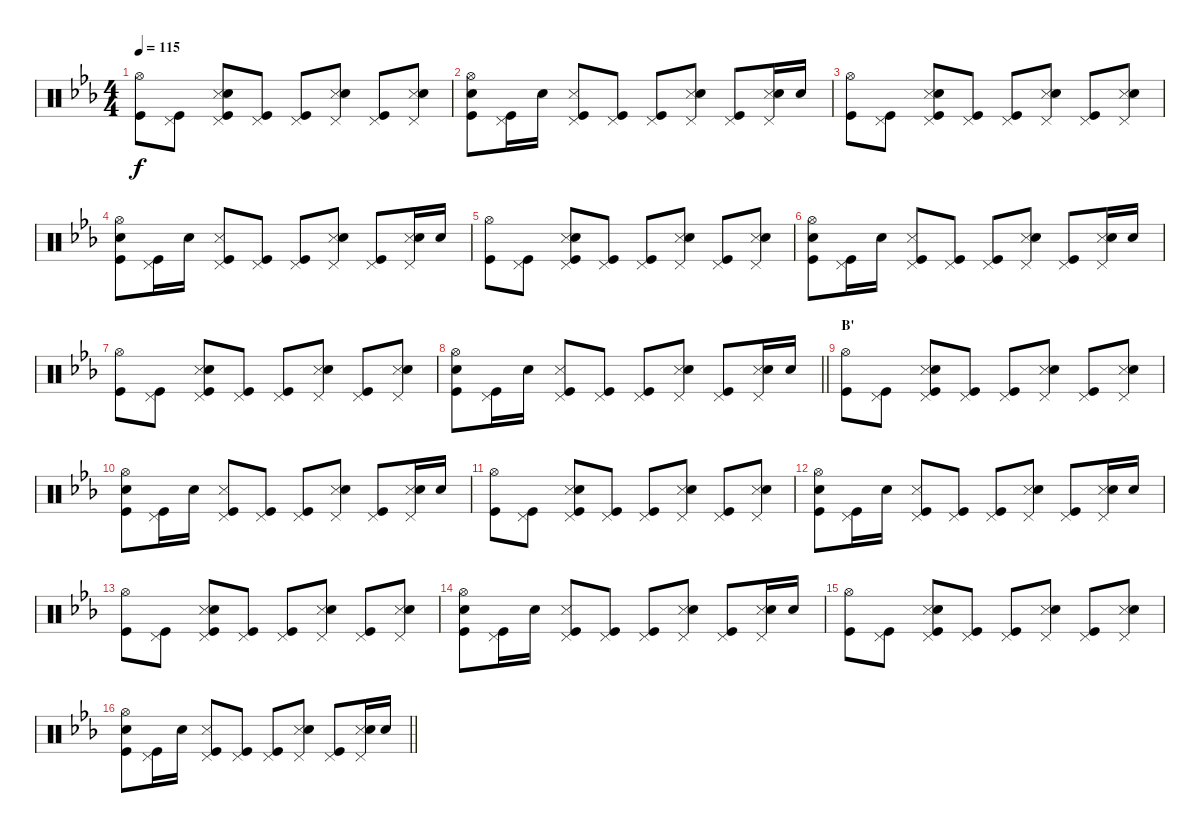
\track "" {instrument percussion}
\staff {score}
\articulation defaults
\ts (4 4)
\tempo 115
\clef neutral
\ks cminor
("Hi-Hat (open)" "Kick (hit)").8{dy f volume 11} ("Pedal Hi-Hat (hit)" "Kick (hit)").8 ("Pedal Hi-Hat (hit)" "Snare (side stick) 3" "Electric Snare (hit)" "Kick (hit)").8 ("Pedal Hi-Hat (hit)" "Kick (hit)").8 ("Pedal Hi-Hat (hit)" "Kick (hit)").8 ("Pedal Hi-Hat (hit)" "Snare (side stick) 3" "Electric Snare (hit)").8 ("Pedal Hi-Hat (hit)" "Kick (hit)").8 ("Pedal Hi-Hat (hit)" "Snare (side stick) 3" "Electric Snare (hit)").8 |
("Hi-Hat (open)" "Electric Snare (hit)" "Kick (hit)").8 ("Pedal Hi-Hat (hit)" "Kick (hit)").16 "Electric Snare (hit)".16 ("Pedal Hi-Hat (hit)" "Snare (side stick) 3" "Kick (hit)").8 ("Pedal Hi-Hat (hit)" "Kick (hit)").8 ("Pedal Hi-Hat (hit)" "Kick (hit)").8 ("Pedal Hi-Hat (hit)" "Snare (side stick) 3" "Electric Snare (hit)").8 ("Pedal Hi-Hat (hit)" "Kick (hit)").8 ("Pedal Hi-Hat (hit)" "Snare (side stick) 3" "Electric Snare (hit)").16 "Electric Snare (hit)".16 |
("Hi-Hat (open)" "Kick (hit)").8 ("Pedal Hi-Hat (hit)" "Kick (hit)").8 ("Pedal Hi-Hat (hit)" "Snare (side stick) 3" "Electric Snare (hit)" "Kick (hit)").8 ("Pedal Hi-Hat (hit)" "Kick (hit)").8 ("Pedal Hi-Hat (hit)" "Kick (hit)").8 ("Pedal Hi-Hat (hit)" "Snare (side stick) 3" "Electric Snare (hit)").8 ("Pedal Hi-Hat (hit)" "Kick (hit)").8 ("Pedal Hi-Hat (hit)" "Snare (side stick) 3" "Electric Snare (hit)").8 |
("Hi-Hat (open)" "Electric Snare (hit)" "Kick (hit)").8 ("Pedal Hi-Hat (hit)" "Kick (hit)").16 "Electric Snare (hit)".16 ("Pedal Hi-Hat (hit)" "Snare (side stick) 3" "Kick (hit)").8 ("Pedal Hi-Hat (hit)" "Kick (hit)").8 ("Pedal Hi-Hat (hit)" "Kick (hit)").8 ("Pedal Hi-Hat (hit)" "Snare (side stick) 3" "Electric Snare (hit)").8 ("Pedal Hi-Hat (hit)" "Kick (hit)").8 ("Pedal Hi-Hat (hit)" "Snare (side stick) 3" "Electric Snare (hit)").16 "Electric Snare (hit)".16 |
("Hi-Hat (open)" "Kick (hit)").8 ("Pedal Hi-Hat (hit)" "Kick (hit)").8 ("Pedal Hi-Hat (hit)" "Snare (side stick) 3" "Electric Snare (hit)" "Kick (hit)").8 ("Pedal Hi-Hat (hit)" "Kick (hit)").8 ("Pedal Hi-Hat (hit)" "Kick (hit)").8 ("Pedal Hi-Hat (hit)" "Snare (side stick) 3" "Electric Snare (hit)").8 ("Pedal Hi-Hat (hit)" "Kick (hit)").8 ("Pedal Hi-Hat (hit)" "Snare (side stick) 3" "Electric Snare (hit)").8 |
("Hi-Hat (open)" "Electric Snare (hit)" "Kick (hit)").8 ("Pedal Hi-Hat (hit)" "Kick (hit)").16 "Electric Snare (hit)".16 ("Pedal Hi-Hat (hit)" "Snare (side stick) 3" "Kick (hit)").8 ("Pedal Hi-Hat (hit)" "Kick (hit)").8 ("Pedal Hi-Hat (hit)" "Kick (hit)").8 ("Pedal Hi-Hat (hit)" "Snare (side stick) 3" "Electric Snare (hit)").8 ("Pedal Hi-Hat (hit)" "Kick (hit)").8 ("Pedal Hi-Hat (hit)" "Snare (side stick) 3" "Electric Snare (hit)").16 "Electric Snare (hit)".16 |
("Hi-Hat (open)" "Kick (hit)").8 ("Pedal Hi-Hat (hit)" "Kick (hit)").8 ("Pedal Hi-Hat (hit)" "Snare (side stick) 3" "Electric Snare (hit)" "Kick (hit)").8 ("Pedal Hi-Hat (hit)" "Kick (hit)").8 ("Pedal Hi-Hat (hit)" "Kick (hit)").8 ("Pedal Hi-Hat (hit)" "Snare (side stick) 3" "Electric Snare (hit)").8 ("Pedal Hi-Hat (hit)" "Kick (hit)").8 ("Pedal Hi-Hat (hit)" "Snare (side stick) 3" "Electric Snare (hit)").8 |
\barLineRight lightlight
("Hi-Hat (open)" "Electric Snare (hit)" "Kick (hit)").8 ("Pedal Hi-Hat (hit)" "Kick (hit)").16 "Electric Snare (hit)".16 ("Pedal Hi-Hat (hit)" "Snare (side stick) 3" "Kick (hit)").8 ("Pedal Hi-Hat (hit)" "Kick (hit)").8 ("Pedal Hi-Hat (hit)" "Kick (hit)").8 ("Pedal Hi-Hat (hit)" "Snare (side stick) 3" "Electric Snare (hit)").8 ("Pedal Hi-Hat (hit)" "Kick (hit)").8 ("Pedal Hi-Hat (hit)" "Snare (side stick) 3" "Electric Snare (hit)").16 "Electric Snare (hit)".16 |
\section ("" "B'")
("Hi-Hat (open)" "Kick (hit)").8 ("Pedal Hi-Hat (hit)" "Kick (hit)").8 ("Pedal Hi-Hat (hit)" "Snare (side stick) 3" "Electric Snare (hit)" "Kick (hit)").8 ("Pedal Hi-Hat (hit)" "Kick (hit)").8 ("Pedal Hi-Hat (hit)" "Kick (hit)").8 ("Pedal Hi-Hat (hit)" "Snare (side stick) 3" "Electric Snare (hit)").8 ("Pedal Hi-Hat (hit)" "Kick (hit)").8 ("Pedal Hi-Hat (hit)" "Snare (side stick) 3" "Electric Snare (hit)").8 |
("Hi-Hat (open)" "Electric Snare (hit)" "Kick (hit)").8 ("Pedal Hi-Hat (hit)" "Kick (hit)").16 "Electric Snare (hit)".16 ("Pedal Hi-Hat (hit)" "Snare (side stick) 3" "Kick (hit)").8 ("Pedal Hi-Hat (hit)" "Kick (hit)").8 ("Pedal Hi-Hat (hit)" "Kick (hit)").8 ("Pedal Hi-Hat (hit)" "Snare (side stick) 3" "Electric Snare (hit)").8 ("Pedal Hi-Hat (hit)" "Kick (hit)").8 ("Pedal Hi-Hat (hit)" "Snare (side stick) 3" "Electric Snare (hit)").16 "Electric Snare (hit)".16 |
("Hi-Hat (open)" "Kick (hit)").8 ("Pedal Hi-Hat (hit)" "Kick (hit)").8 ("Pedal Hi-Hat (hit)" "Snare (side stick) 3" "Electric Snare (hit)" "Kick (hit)").8 ("Pedal Hi-Hat (hit)" "Kick (hit)").8 ("Pedal Hi-Hat (hit)" "Kick (hit)").8 ("Pedal Hi-Hat (hit)" "Snare (side stick) 3" "Electric Snare (hit)").8 ("Pedal Hi-Hat (hit)" "Kick (hit)").8 ("Pedal Hi-Hat (hit)" "Snare (side stick) 3" "Electric Snare (hit)").8 |
("Hi-Hat (open)" "Electric Snare (hit)" "Kick (hit)").8 ("Pedal Hi-Hat (hit)" "Kick (hit)").16 "Electric Snare (hit)".16 ("Pedal Hi-Hat (hit)" "Snare (side stick) 3" "Kick (hit)").8 ("Pedal Hi-Hat (hit)" "Kick (hit)").8 ("Pedal Hi-Hat (hit)" "Kick (hit)").8 ("Pedal Hi-Hat (hit)" "Snare (side stick) 3" "Electric Snare (hit)").8 ("Pedal Hi-Hat (hit)" "Kick (hit)").8 ("Pedal Hi-Hat (hit)" "Snare (side stick) 3" "Electric Snare (hit)").16 "Electric Snare (hit)".16 |
("Hi-Hat (open)" "Kick (hit)").8 ("Pedal Hi-Hat (hit)" "Kick (hit)").8 ("Pedal Hi-Hat (hit)" "Snare (side stick) 3" "Electric Snare (hit)" "Kick (hit)").8 ("Pedal Hi-Hat (hit)" "Kick (hit)").8 ("Pedal Hi-Hat (hit)" "Kick (hit)").8 ("Pedal Hi-Hat (hit)" "Snare (side stick) 3" "Electric Snare (hit)").8 ("Pedal Hi-Hat (hit)" "Kick (hit)").8 ("Pedal Hi-Hat (hit)" "Snare (side stick) 3" "Electric Snare (hit)").8 |
("Hi-Hat (open)" "Electric Snare (hit)" "Kick (hit)").8 ("Pedal Hi-Hat (hit)" "Kick (hit)").16 "Electric Snare (hit)".16 ("Pedal Hi-Hat (hit)" "Snare (side stick) 3" "Kick (hit)").8 ("Pedal Hi-Hat (hit)" "Kick (hit)").8 ("Pedal Hi-Hat (hit)" "Kick (hit)").8 ("Pedal Hi-Hat (hit)" "Snare (side stick) 3" "Electric Snare (hit)").8 ("Pedal Hi-Hat (hit)" "Kick (hit)").8 ("Pedal Hi-Hat (hit)" "Snare (side stick) 3" "Electric Snare (hit)").16 "Electric Snare (hit)".16 |
("Hi-Hat (open)" "Kick (hit)").8 ("Pedal Hi-Hat (hit)" "Kick (hit)").8 ("Pedal Hi-Hat (hit)" "Snare (side stick) 3" "Electric Snare (hit)" "Kick (hit)").8 ("Pedal Hi-Hat (hit)" "Kick (hit)").8 ("Pedal Hi-Hat (hit)" "Kick (hit)").8 ("Pedal Hi-Hat (hit)" "Snare (side stick) 3" "Electric Snare (hit)").8 ("Pedal Hi-Hat (hit)" "Kick (hit)").8 ("Pedal Hi-Hat (hit)" "Snare (side stick) 3" "Electric Snare (hit)").8 |
\barLineRight lightlight
("Hi-Hat (open)" "Electric Snare (hit)" "Kick (hit)").8 ("Pedal Hi-Hat (hit)" "Kick (hit)").16 "Electric Snare (hit)".16 ("Pedal Hi-Hat (hit)" "Snare (side stick) 3" "Kick (hit)").8 ("Pedal Hi-Hat (hit)" "Kick (hit)").8 ("Pedal Hi-Hat (hit)" "Kick (hit)").8 ("Pedal Hi-Hat (hit)" "Snare (side stick) 3" "Electric Snare (hit)").8 ("Pedal Hi-Hat (hit)" "Kick (hit)").8 ("Pedal Hi-Hat (hit)" "Snare (side stick) 3" "Electric Snare (hit)").16 "Electric Snare (hit)".16
